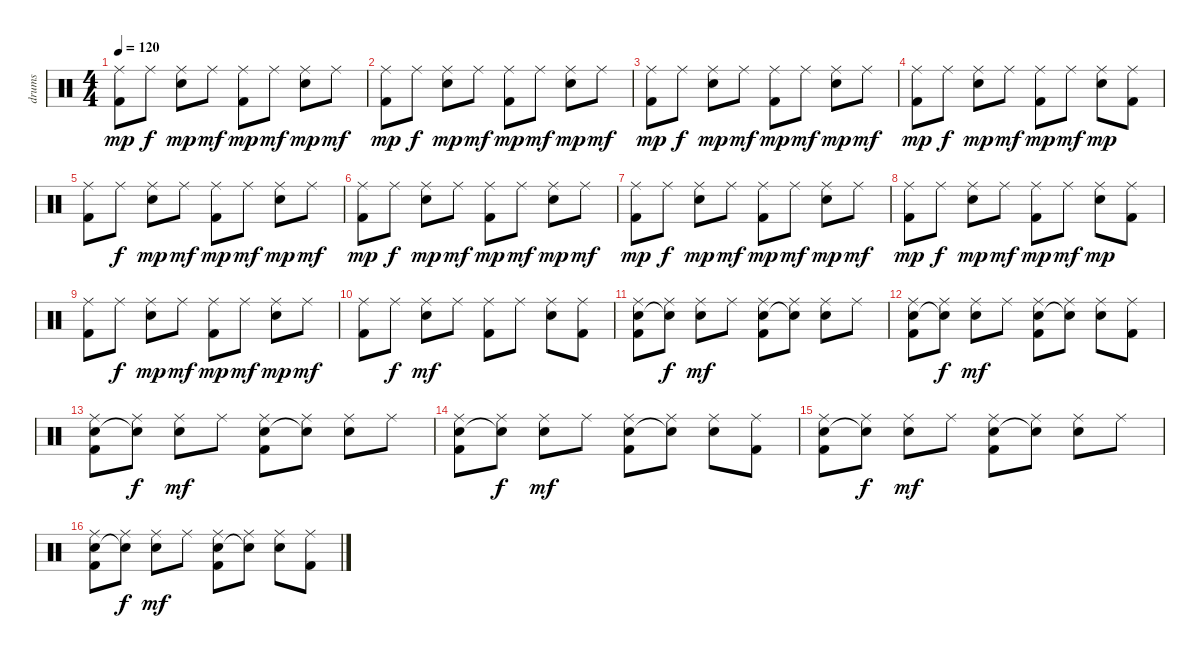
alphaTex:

\track ("drums" "drums") {instrument percussion}
\staff {score}
\articulation defaults
\ts (4 4)
\tempo 120
\clef neutral
\ks c
("Ride (middle)" "Kick (hit) 2").8{dy mp} "Ride (middle)".8{dy f} ("Ride (middle)" "Snare (hit) 2").8{dy mp} "Ride (middle)".8{dy mf} ("Ride (middle)" "Kick (hit) 2").8{dy mp} "Ride (middle)".8{dy mf} ("Ride (middle)" "Snare (hit) 2").8{dy mp} "Ride (middle)".8{dy mf} |
("Ride (middle)" "Kick (hit) 2").8{dy mp} "Ride (middle)".8{dy f} ("Ride (middle)" "Snare (hit) 2").8{dy mp} "Ride (middle)".8{dy mf} ("Ride (middle)" "Kick (hit) 2").8{dy mp} "Ride (middle)".8{dy mf} ("Ride (middle)" "Snare (hit) 2").8{dy mp} "Ride (middle)".8{dy mf} |
("Ride (middle)" "Kick (hit) 2").8{dy mp} "Ride (middle)".8{dy f} ("Ride (middle)" "Snare (hit) 2").8{dy mp} "Ride (middle)".8{dy mf} ("Ride (middle)" "Kick (hit) 2").8{dy mp} "Ride (middle)".8{dy mf} ("Ride (middle)" "Snare (hit) 2").8{dy mp} "Ride (middle)".8{dy mf} |
("Ride (middle)" "Kick (hit) 2").8{dy mp} "Ride (middle)".8{dy f} ("Ride (middle)" "Snare (hit) 2").8{dy mp} "Ride (middle)".8{dy mf} ("Ride (middle)" "Kick (hit) 2").8{dy mp} "Ride (middle)".8{dy mf} ("Ride (middle)" "Snare (hit) 2").8{dy mp} ("Ride (middle)" "Kick (hit) 2").8 |
("Ride (middle)" "Kick (hit) 2").8 "Ride (middle)".8{dy f} ("Ride (middle)" "Snare (hit) 2").8{dy mp} "Ride (middle)".8{dy mf} ("Ride (middle)" "Kick (hit) 2").8{dy mp} "Ride (middle)".8{dy mf} ("Ride (middle)" "Snare (hit) 2").8{dy mp} "Ride (middle)".8{dy mf} |
("Ride (middle)" "Kick (hit) 2").8{dy mp} "Ride (middle)".8{dy f} ("Ride (middle)" "Snare (hit) 2").8{dy mp} "Ride (middle)".8{dy mf} ("Ride (middle)" "Kick (hit) 2").8{dy mp} "Ride (middle)".8{dy mf} ("Ride (middle)" "Snare (hit) 2").8{dy mp} "Ride (middle)".8{dy mf} |
("Ride (middle)" "Kick (hit) 2").8{dy mp} "Ride (middle)".8{dy f} ("Ride (middle)" "Snare (hit) 2").8{dy mp} "Ride (middle)".8{dy mf} ("Ride (middle)" "Kick (hit) 2").8{dy mp} "Ride (middle)".8{dy mf} ("Ride (middle)" "Snare (hit) 2").8{dy mp} "Ride (middle)".8{dy mf} |
("Ride (middle)" "Kick (hit) 2").8{dy mp} "Ride (middle)".8{dy f} ("Ride (middle)" "Snare (hit) 2").8{dy mp} "Ride (middle)".8{dy mf} ("Ride (middle)" "Kick (hit) 2").8{dy mp} "Ride (middle)".8{dy mf} ("Ride (middle)" "Snare (hit) 2").8{dy mp} ("Ride (middle)" "Kick (hit) 2").8 |
("Ride (middle)" "Kick (hit) 2").8 "Ride (middle)".8{dy f} ("Ride (middle)" "Snare (hit) 2").8{dy mp} "Ride (middle)".8{dy mf} ("Ride (middle)" "Kick (hit) 2").8{dy mp} "Ride (middle)".8{dy mf} ("Ride (middle)" "Snare (hit) 2").8{dy mp} "Ride (middle)".8{dy mf} |
("Ride (middle)" "Kick (hit) 2").8 "Ride (middle)".8{dy f} ("Ride (middle)" "Snare (hit) 2").8{dy mf} "Ride (middle)".8 ("Ride (middle)" "Kick (hit) 2").8 "Ride (middle)".8 ("Ride (middle)" "Snare (hit) 2").8 ("Ride (middle)" "Kick (hit) 2").8 |
("Ride (middle)" "Hand Clap (hit)" "Kick (hit) 2").8 ("Ride (middle)" "Snare (hit)"{t}).8{dy f} ("Ride (middle)" "Snare (hit) 2").8{dy mf} "Ride (middle)".8 ("Ride (middle)" "Hand Clap (hit)" "Kick (hit) 2").8 ("Ride (middle)" "Snare (hit)"{t}).8 ("Ride (middle)" "Snare (hit) 2").8 "Ride (middle)".8 |
("Ride (middle)" "Hand Clap (hit)" "Kick (hit) 2").8 ("Ride (middle)" "Snare (hit)"{t}).8{dy f} ("Ride (middle)" "Snare (hit) 2").8{dy mf} "Ride (middle)".8 ("Ride (middle)" "Hand Clap (hit)" "Kick (hit) 2").8 ("Ride (middle)" "Snare (hit)"{t}).8 ("Ride (middle)" "Snare (hit) 2").8 ("Ride (middle)" "Kick (hit) 2").8 |
("Ride (middle)" "Hand Clap (hit)" "Kick (hit) 2").8 ("Ride (middle)" "Snare (hit)"{t}).8{dy f} ("Ride (middle)" "Snare (hit) 2").8{dy mf} "Ride (middle)".8 ("Ride (middle)" "Hand Clap (hit)" "Kick (hit) 2").8 ("Ride (middle)" "Snare (hit)"{t}).8 ("Ride (middle)" "Snare (hit) 2").8 "Ride (middle)".8 |
("Ride (middle)" "Hand Clap (hit)" "Kick (hit) 2").8 ("Ride (middle)" "Snare (hit)"{t}).8{dy f} ("Ride (middle)" "Snare (hit) 2").8{dy mf} "Ride (middle)".8 ("Ride (middle)" "Hand Clap (hit)" "Kick (hit) 2").8 ("Ride (middle)" "Snare (hit)"{t}).8 ("Ride (middle)" "Snare (hit) 2").8 ("Ride (middle)" "Kick (hit) 2").8 |
("Ride (middle)" "Hand Clap (hit)" "Kick (hit) 2").8 ("Ride (middle)" "Snare (hit)"{t}).8{dy f} ("Ride (middle)" "Snare (hit) 2").8{dy mf} "Ride (middle)".8 ("Ride (middle)" "Hand Clap (hit)" "Kick (hit) 2").8 ("Ride (middle)" "Snare (hit)"{t}).8 ("Ride (middle)" "Snare (hit) 2").8 "Ride (middle)".8 |
("Ride (middle)" "Hand Clap (hit)" "Kick (hit) 2").8 ("Ride (middle)" "Snare (hit)"{t}).8{dy f} ("Ride (middle)" "Snare (hit) 2").8{dy mf} "Ride (middle)".8 ("Ride (middle)" "Hand Clap (hit)" "Kick (hit) 2").8 ("Ride (middle)" "Snare (hit)"{t}).8 ("Ride (middle)" "Snare (hit) 2").8 ("Ride (middle)" "Kick (hit) 2").8
